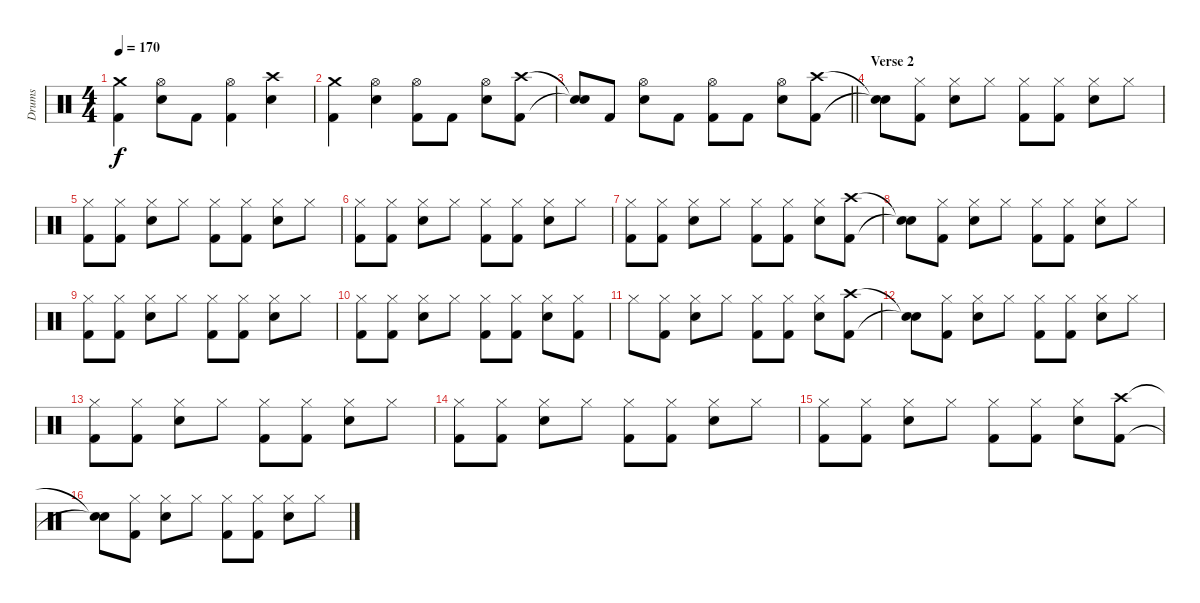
\track ("Drums" "Drums") {instrument percussion}
\staff {score}
\articulation defaults
\ts (4 4)
\tempo 170
\clef neutral
\ks c
("Crash medium (hit)" "Kick (hit) 2").4{dy f} ("Hi-Hat (open)" "Electric Snare (hit)").8 "Kick (hit) 2".8 ("Hi-Hat (open)" "Kick (hit) 2").4 ("Crash high (hit)" "Electric Snare (hit)").4 |
("Crash medium (hit)" "Kick (hit) 2").4 ("Hi-Hat (open)" "Electric Snare (hit)").4 ("Hi-Hat (open)" "Kick (hit) 2").8 "Kick (hit) 2".8 ("Hi-Hat (open)" "Electric Snare (hit)").8 ("Crash high (hit)" "Kick (hit) 2").8 |
\barLineRight lightlight
("Snare (hit)"{t} "Snare (hit)"{t}).8 "Kick (hit) 2".8 ("Hi-Hat (open)" "Electric Snare (hit)").8 "Kick (hit) 2".8 ("Hi-Hat (open)" "Kick (hit) 2").8 "Kick (hit) 2".8 ("Hi-Hat (open)" "Electric Snare (hit)").8 ("Crash high (hit)" "Kick (hit) 2").8 |
\section ("" "Verse 2")
("Snare (hit)"{t} "Snare (hit)"{t}).8 ("Hi-Hat (closed)" "Kick (hit) 2").8 ("Hi-Hat (closed)" "Electric Snare (hit)").8 "Hi-Hat (closed)".8 ("Hi-Hat (closed)" "Kick (hit) 2").8 ("Hi-Hat (closed)" "Kick (hit) 2").8 ("Hi-Hat (closed)" "Electric Snare (hit)").8 "Hi-Hat (closed)".8 |
("Hi-Hat (closed)" "Kick (hit) 2").8 ("Hi-Hat (closed)" "Kick (hit) 2").8 ("Hi-Hat (closed)" "Electric Snare (hit)").8 "Hi-Hat (closed)".8 ("Hi-Hat (closed)" "Kick (hit) 2").8 ("Hi-Hat (closed)" "Kick (hit) 2").8 ("Hi-Hat (closed)" "Electric Snare (hit)").8 "Hi-Hat (closed)".8 |
("Hi-Hat (closed)" "Kick (hit) 2").8 ("Hi-Hat (closed)" "Kick (hit) 2").8 ("Hi-Hat (closed)" "Electric Snare (hit)").8 "Hi-Hat (closed)".8 ("Hi-Hat (closed)" "Kick (hit) 2").8 ("Hi-Hat (closed)" "Kick (hit) 2").8 ("Hi-Hat (closed)" "Electric Snare (hit)").8 "Hi-Hat (closed)".8 |
("Hi-Hat (closed)" "Kick (hit) 2").8 ("Hi-Hat (closed)" "Kick (hit) 2").8 ("Hi-Hat (closed)" "Electric Snare (hit)").8 "Hi-Hat (closed)".8 ("Hi-Hat (closed)" "Kick (hit) 2").8 ("Hi-Hat (closed)" "Kick (hit) 2").8 ("Hi-Hat (closed)" "Electric Snare (hit)").8 ("Crash high (hit)" "Kick (hit) 2").8 |
("Snare (hit)"{t} "Snare (hit)"{t}).8 ("Hi-Hat (closed)" "Kick (hit) 2").8 ("Hi-Hat (closed)" "Electric Snare (hit)").8 "Hi-Hat (closed)".8 ("Hi-Hat (closed)" "Kick (hit) 2").8 ("Hi-Hat (closed)" "Kick (hit) 2").8 ("Hi-Hat (closed)" "Electric Snare (hit)").8 "Hi-Hat (closed)".8 |
("Hi-Hat (closed)" "Kick (hit) 2").8 ("Hi-Hat (closed)" "Kick (hit) 2").8 ("Hi-Hat (closed)" "Electric Snare (hit)").8 "Hi-Hat (closed)".8 ("Hi-Hat (closed)" "Kick (hit) 2").8 ("Hi-Hat (closed)" "Kick (hit) 2").8 ("Hi-Hat (closed)" "Electric Snare (hit)").8 "Hi-Hat (closed)".8 |
("Hi-Hat (closed)" "Kick (hit) 2").8 ("Hi-Hat (closed)" "Kick (hit) 2").8 ("Hi-Hat (closed)" "Electric Snare (hit)").8 "Hi-Hat (closed)".8 ("Hi-Hat (closed)" "Kick (hit) 2").8 ("Hi-Hat (closed)" "Kick (hit) 2").8 ("Hi-Hat (closed)" "Electric Snare (hit)").8 ("Hi-Hat (closed)" "Kick (hit) 2").8 |
"Hi-Hat (closed)".8 ("Hi-Hat (closed)" "Kick (hit) 2").8 ("Hi-Hat (closed)" "Electric Snare (hit)").8 "Hi-Hat (closed)".8 ("Hi-Hat (closed)" "Kick (hit) 2").8 ("Hi-Hat (closed)" "Kick (hit) 2").8 ("Hi-Hat (closed)" "Electric Snare (hit)").8 ("Crash high (hit)" "Kick (hit) 2").8 |
("Snare (hit)"{t} "Snare (hit)"{t}).8 ("Hi-Hat (closed)" "Kick (hit) 2").8 ("Hi-Hat (closed)" "Electric Snare (hit)").8 "Hi-Hat (closed)".8 ("Hi-Hat (closed)" "Kick (hit) 2").8 ("Hi-Hat (closed)" "Kick (hit) 2").8 ("Hi-Hat (closed)" "Electric Snare (hit)").8 "Hi-Hat (closed)".8 |
("Hi-Hat (closed)" "Kick (hit) 2").8 ("Hi-Hat (closed)" "Kick (hit) 2").8 ("Hi-Hat (closed)" "Electric Snare (hit)").8 "Hi-Hat (closed)".8 ("Hi-Hat (closed)" "Kick (hit) 2").8 ("Hi-Hat (closed)" "Kick (hit) 2").8 ("Hi-Hat (closed)" "Electric Snare (hit)").8 "Hi-Hat (closed)".8 |
("Hi-Hat (closed)" "Kick (hit) 2").8 ("Hi-Hat (closed)" "Kick (hit) 2").8 ("Hi-Hat (closed)" "Electric Snare (hit)").8 "Hi-Hat (closed)".8 ("Hi-Hat (closed)" "Kick (hit) 2").8 ("Hi-Hat (closed)" "Kick (hit) 2").8 ("Hi-Hat (closed)" "Electric Snare (hit)").8 "Hi-Hat (closed)".8 |
("Hi-Hat (closed)" "Kick (hit) 2").8 ("Hi-Hat (closed)" "Kick (hit) 2").8 ("Hi-Hat (closed)" "Electric Snare (hit)").8 "Hi-Hat (closed)".8 ("Hi-Hat (closed)" "Kick (hit) 2").8 ("Hi-Hat (closed)" "Kick (hit) 2").8 ("Hi-Hat (closed)" "Electric Snare (hit)").8 ("Crash high (hit)" "Kick (hit) 2").8 |
("Snare (hit)"{t} "Snare (hit)"{t}).8 ("Hi-Hat (closed)" "Kick (hit) 2").8 ("Hi-Hat (closed)" "Electric Snare (hit)").8 "Hi-Hat (closed)".8 ("Hi-Hat (closed)" "Kick (hit) 2").8 ("Hi-Hat (closed)" "Kick (hit) 2").8 ("Hi-Hat (closed)" "Electric Snare (hit)").8 "Hi-Hat (closed)".8
